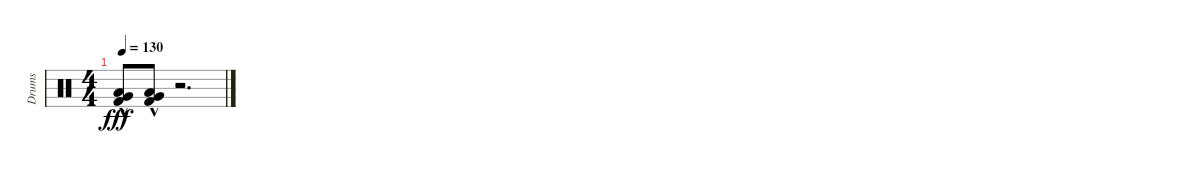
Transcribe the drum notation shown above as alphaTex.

\track ("Drums" "Drums") {instrument percussion}
\staff {score}
\articulation defaults
\ts (4 4)
\tempo 130
\clef neutral
\ks c
("Very Low Tom (hit)"{hac} "Low Floor Tom (hit)"{hac} "Kick (hit) 2"{hac}).8{dy fff} ("Very Low Tom (hit)"{hac} "Low Floor Tom (hit)"{hac} "Kick (hit) 2"{hac}).8 r.2{d}
